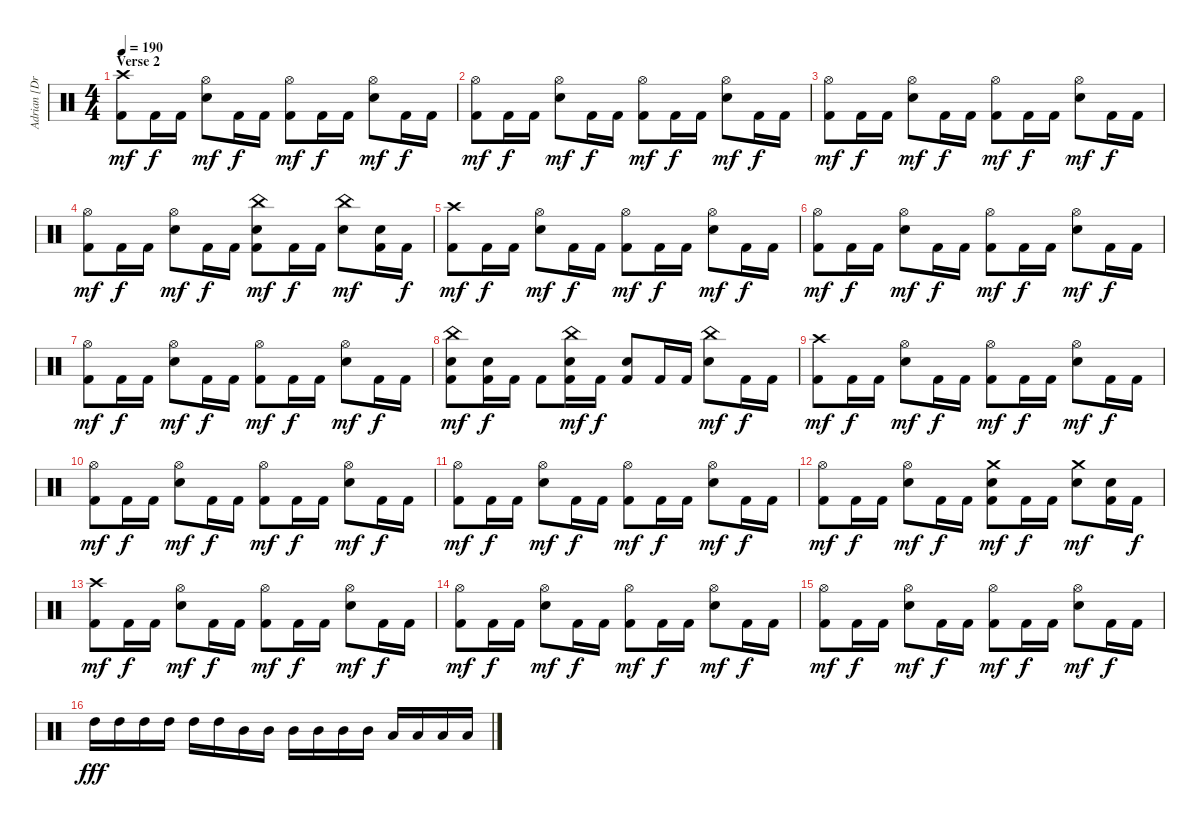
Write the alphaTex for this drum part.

\track ("Adrian [Drums]" "Adrian [Dr") {instrument percussion}
\staff {score}
\articulation defaults
\ts (4 4)
\section ("" "Verse 2")
\tempo 190
\clef neutral
\ks c
("Crash high (hit)" "Kick (hit) 2").8{dy mf} "Kick (hit) 2".16{dy f} "Kick (hit) 2".16 ("Hi-Hat (open)" "Electric Snare (hit)").8{dy mf} "Kick (hit) 2".16{dy f} "Kick (hit) 2".16 ("Hi-Hat (open)" "Kick (hit) 2").8{dy mf} "Kick (hit) 2".16{dy f} "Kick (hit) 2".16 ("Hi-Hat (open)" "Electric Snare (hit)").8{dy mf} "Kick (hit) 2".16{dy f} "Kick (hit) 2".16 |
("Hi-Hat (open)" "Kick (hit) 2").8{dy mf} "Kick (hit) 2".16{dy f} "Kick (hit) 2".16 ("Hi-Hat (open)" "Electric Snare (hit)").8{dy mf} "Kick (hit) 2".16{dy f} "Kick (hit) 2".16 ("Hi-Hat (open)" "Kick (hit) 2").8{dy mf} "Kick (hit) 2".16{dy f} "Kick (hit) 2".16 ("Hi-Hat (open)" "Electric Snare (hit)").8{dy mf} "Kick (hit) 2".16{dy f} "Kick (hit) 2".16 |
("Hi-Hat (open)" "Kick (hit) 2").8{dy mf} "Kick (hit) 2".16{dy f} "Kick (hit) 2".16 ("Hi-Hat (open)" "Electric Snare (hit)").8{dy mf} "Kick (hit) 2".16{dy f} "Kick (hit) 2".16 ("Hi-Hat (open)" "Kick (hit) 2").8{dy mf} "Kick (hit) 2".16{dy f} "Kick (hit) 2".16 ("Hi-Hat (open)" "Electric Snare (hit)").8{dy mf} "Kick (hit) 2".16{dy f} "Kick (hit) 2".16 |
("Hi-Hat (open)" "Kick (hit) 2").8{dy mf} "Kick (hit) 2".16{dy f} "Kick (hit) 2".16 ("Hi-Hat (open)" "Electric Snare (hit)").8{dy mf} "Kick (hit) 2".16{dy f} "Kick (hit) 2".16 ("China (hit)" "Electric Snare (hit)" "Kick (hit) 2").8{dy mf} "Kick (hit) 2".16{dy f} "Kick (hit) 2".16 ("China (hit)" "Electric Snare (hit)").8{dy mf} ("Electric Snare (hit)" "Kick (hit) 2").16 "Kick (hit) 2".16{dy f} |
("Crash high (hit)" "Kick (hit) 2").8{dy mf} "Kick (hit) 2".16{dy f} "Kick (hit) 2".16 ("Hi-Hat (open)" "Electric Snare (hit)").8{dy mf} "Kick (hit) 2".16{dy f} "Kick (hit) 2".16 ("Hi-Hat (open)" "Kick (hit) 2").8{dy mf} "Kick (hit) 2".16{dy f} "Kick (hit) 2".16 ("Hi-Hat (open)" "Electric Snare (hit)").8{dy mf} "Kick (hit) 2".16{dy f} "Kick (hit) 2".16 |
("Hi-Hat (open)" "Kick (hit) 2").8{dy mf} "Kick (hit) 2".16{dy f} "Kick (hit) 2".16 ("Hi-Hat (open)" "Electric Snare (hit)").8{dy mf} "Kick (hit) 2".16{dy f} "Kick (hit) 2".16 ("Hi-Hat (open)" "Kick (hit) 2").8{dy mf} "Kick (hit) 2".16{dy f} "Kick (hit) 2".16 ("Hi-Hat (open)" "Electric Snare (hit)").8{dy mf} "Kick (hit) 2".16{dy f} "Kick (hit) 2".16 |
("Hi-Hat (open)" "Kick (hit) 2").8{dy mf} "Kick (hit) 2".16{dy f} "Kick (hit) 2".16 ("Hi-Hat (open)" "Electric Snare (hit)").8{dy mf} "Kick (hit) 2".16{dy f} "Kick (hit) 2".16 ("Hi-Hat (open)" "Kick (hit) 2").8{dy mf} "Kick (hit) 2".16{dy f} "Kick (hit) 2".16 ("Hi-Hat (open)" "Electric Snare (hit)").8{dy mf} "Kick (hit) 2".16{dy f} "Kick (hit) 2".16 |
("China (hit)" "Electric Snare (hit)" "Kick (hit) 2").8{dy mf} ("Electric Snare (hit)" "Kick (hit) 2").16{dy f} "Kick (hit) 2".16 "Kick (hit) 2".8 ("China (hit)" "Electric Snare (hit)" "Kick (hit) 2").16{dy mf} "Kick (hit) 2".16{dy f} ("Electric Snare (hit)" "Kick (hit) 2").8 "Kick (hit) 2".16 "Kick (hit) 2".16 ("China (hit)" "Electric Snare (hit)").8{dy mf} "Kick (hit) 2".16{dy f} "Kick (hit) 2".16 |
("Crash high (hit)" "Kick (hit) 2").8{dy mf} "Kick (hit) 2".16{dy f} "Kick (hit) 2".16 ("Hi-Hat (open)" "Electric Snare (hit)").8{dy mf} "Kick (hit) 2".16{dy f} "Kick (hit) 2".16 ("Hi-Hat (open)" "Kick (hit) 2").8{dy mf} "Kick (hit) 2".16{dy f} "Kick (hit) 2".16 ("Hi-Hat (open)" "Electric Snare (hit)").8{dy mf} "Kick (hit) 2".16{dy f} "Kick (hit) 2".16 |
("Hi-Hat (open)" "Kick (hit) 2").8{dy mf} "Kick (hit) 2".16{dy f} "Kick (hit) 2".16 ("Hi-Hat (open)" "Electric Snare (hit)").8{dy mf} "Kick (hit) 2".16{dy f} "Kick (hit) 2".16 ("Hi-Hat (open)" "Kick (hit) 2").8{dy mf} "Kick (hit) 2".16{dy f} "Kick (hit) 2".16 ("Hi-Hat (open)" "Electric Snare (hit)").8{dy mf} "Kick (hit) 2".16{dy f} "Kick (hit) 2".16 |
("Hi-Hat (open)" "Kick (hit) 2").8{dy mf} "Kick (hit) 2".16{dy f} "Kick (hit) 2".16 ("Hi-Hat (open)" "Electric Snare (hit)").8{dy mf} "Kick (hit) 2".16{dy f} "Kick (hit) 2".16 ("Hi-Hat (open)" "Kick (hit) 2").8{dy mf} "Kick (hit) 2".16{dy f} "Kick (hit) 2".16 ("Hi-Hat (open)" "Electric Snare (hit)").8{dy mf} "Kick (hit) 2".16{dy f} "Kick (hit) 2".16 |
("Hi-Hat (open)" "Kick (hit) 2").8{dy mf} "Kick (hit) 2".16{dy f} "Kick (hit) 2".16 ("Hi-Hat (open)" "Electric Snare (hit)").8{dy mf} "Kick (hit) 2".16{dy f} "Kick (hit) 2".16 ("Crash medium (hit)" "Electric Snare (hit)" "Kick (hit) 2").8{dy mf} "Kick (hit) 2".16{dy f} "Kick (hit) 2".16 ("Crash medium (hit)" "Electric Snare (hit)").8{dy mf} ("Electric Snare (hit)" "Kick (hit) 2").16 "Kick (hit) 2".16{dy f} |
("Crash high (hit)" "Kick (hit) 2").8{dy mf} "Kick (hit) 2".16{dy f} "Kick (hit) 2".16 ("Hi-Hat (open)" "Electric Snare (hit)").8{dy mf} "Kick (hit) 2".16{dy f} "Kick (hit) 2".16 ("Hi-Hat (open)" "Kick (hit) 2").8{dy mf} "Kick (hit) 2".16{dy f} "Kick (hit) 2".16 ("Hi-Hat (open)" "Electric Snare (hit)").8{dy mf} "Kick (hit) 2".16{dy f} "Kick (hit) 2".16 |
("Hi-Hat (open)" "Kick (hit) 2").8{dy mf} "Kick (hit) 2".16{dy f} "Kick (hit) 2".16 ("Hi-Hat (open)" "Electric Snare (hit)").8{dy mf} "Kick (hit) 2".16{dy f} "Kick (hit) 2".16 ("Hi-Hat (open)" "Kick (hit) 2").8{dy mf} "Kick (hit) 2".16{dy f} "Kick (hit) 2".16 ("Hi-Hat (open)" "Electric Snare (hit)").8{dy mf} "Kick (hit) 2".16{dy f} "Kick (hit) 2".16 |
("Hi-Hat (open)" "Kick (hit) 2").8{dy mf} "Kick (hit) 2".16{dy f} "Kick (hit) 2".16 ("Hi-Hat (open)" "Electric Snare (hit)").8{dy mf} "Kick (hit) 2".16{dy f} "Kick (hit) 2".16 ("Hi-Hat (open)" "Kick (hit) 2").8{dy mf} "Kick (hit) 2".16{dy f} "Kick (hit) 2".16 ("Hi-Hat (open)" "Electric Snare (hit)").8{dy mf} "Kick (hit) 2".16{dy f} "Kick (hit) 2".16 |
"High Tom (hit)".16{dy fff} "High Tom (hit)".16 "High Tom (hit)".16 "High Tom (hit)".16 "High Tom (hit)".16 "High Tom (hit)".16 "Mid Tom (hit)".16 "Mid Tom (hit)".16 "Mid Tom (hit)".16 "Mid Tom (hit)".16 "Mid Tom (hit)".16 "Mid Tom (hit)".16 "Low Tom (hit)".16 "Low Tom (hit)".16 "Low Tom (hit)".16 "Low Tom (hit)".16
